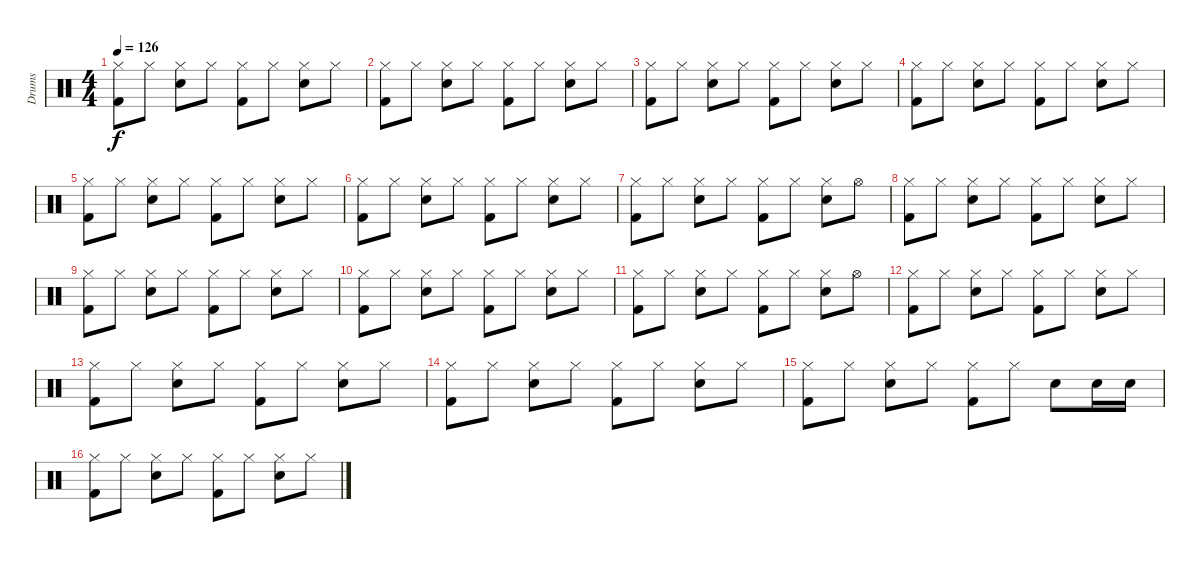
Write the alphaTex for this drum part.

\track ("Drums" "Drums") {instrument percussion}
\staff {score}
\articulation defaults
\ts (4 4)
\tempo 126
\clef neutral
\ks c
("Kick (hit) 2" "Hi-Hat (closed)").8{dy f} "Hi-Hat (closed)".8 ("Snare (hit) 2" "Hi-Hat (closed)").8 "Hi-Hat (closed)".8 ("Kick (hit) 2" "Hi-Hat (closed)").8 "Hi-Hat (closed)".8 ("Snare (hit) 2" "Hi-Hat (closed)").8 "Hi-Hat (closed)".8 |
("Kick (hit) 2" "Hi-Hat (closed)").8 "Hi-Hat (closed)".8 ("Snare (hit) 2" "Hi-Hat (closed)").8 "Hi-Hat (closed)".8 ("Kick (hit) 2" "Hi-Hat (closed)").8 "Hi-Hat (closed)".8 ("Snare (hit) 2" "Hi-Hat (closed)").8 "Hi-Hat (closed)".8 |
("Kick (hit) 2" "Hi-Hat (closed)").8 "Hi-Hat (closed)".8 ("Snare (hit) 2" "Hi-Hat (closed)").8 "Hi-Hat (closed)".8 ("Kick (hit) 2" "Hi-Hat (closed)").8 "Hi-Hat (closed)".8 ("Snare (hit) 2" "Hi-Hat (closed)").8 "Hi-Hat (closed)".8 |
("Kick (hit) 2" "Hi-Hat (closed)").8 "Hi-Hat (closed)".8 ("Snare (hit) 2" "Hi-Hat (closed)").8 "Hi-Hat (closed)".8 ("Kick (hit) 2" "Hi-Hat (closed)").8 "Hi-Hat (closed)".8 ("Snare (hit) 2" "Hi-Hat (closed)").8 "Hi-Hat (closed)".8 |
("Kick (hit) 2" "Hi-Hat (closed)").8 "Hi-Hat (closed)".8 ("Snare (hit) 2" "Hi-Hat (closed)").8 "Hi-Hat (closed)".8 ("Kick (hit) 2" "Hi-Hat (closed)").8 "Hi-Hat (closed)".8 ("Snare (hit) 2" "Hi-Hat (closed)").8 "Hi-Hat (closed)".8 |
("Kick (hit) 2" "Hi-Hat (closed)").8 "Hi-Hat (closed)".8 ("Snare (hit) 2" "Hi-Hat (closed)").8 "Hi-Hat (closed)".8 ("Kick (hit) 2" "Hi-Hat (closed)").8 "Hi-Hat (closed)".8 ("Snare (hit) 2" "Hi-Hat (closed)").8 "Hi-Hat (closed)".8 |
("Kick (hit) 2" "Hi-Hat (closed)").8 "Hi-Hat (closed)".8 ("Snare (hit) 2" "Hi-Hat (closed)").8 "Hi-Hat (closed)".8 ("Kick (hit) 2" "Hi-Hat (closed)").8 "Hi-Hat (closed)".8 ("Snare (hit) 2" "Hi-Hat (closed)").8 "Hi-Hat (open)".8 |
("Kick (hit) 2" "Hi-Hat (closed)").8 "Hi-Hat (closed)".8 ("Snare (hit) 2" "Hi-Hat (closed)").8 "Hi-Hat (closed)".8 ("Kick (hit) 2" "Hi-Hat (closed)").8 "Hi-Hat (closed)".8 ("Snare (hit) 2" "Hi-Hat (closed)").8 "Hi-Hat (closed)".8 |
("Kick (hit) 2" "Hi-Hat (closed)").8 "Hi-Hat (closed)".8 ("Snare (hit) 2" "Hi-Hat (closed)").8 "Hi-Hat (closed)".8 ("Kick (hit) 2" "Hi-Hat (closed)").8 "Hi-Hat (closed)".8 ("Snare (hit) 2" "Hi-Hat (closed)").8 "Hi-Hat (closed)".8 |
("Kick (hit) 2" "Hi-Hat (closed)").8 "Hi-Hat (closed)".8 ("Snare (hit) 2" "Hi-Hat (closed)").8 "Hi-Hat (closed)".8 ("Kick (hit) 2" "Hi-Hat (closed)").8 "Hi-Hat (closed)".8 ("Snare (hit) 2" "Hi-Hat (closed)").8 "Hi-Hat (closed)".8 |
("Kick (hit) 2" "Hi-Hat (closed)").8 "Hi-Hat (closed)".8 ("Snare (hit) 2" "Hi-Hat (closed)").8 "Hi-Hat (closed)".8 ("Kick (hit) 2" "Hi-Hat (closed)").8 "Hi-Hat (closed)".8 ("Snare (hit) 2" "Hi-Hat (closed)").8 "Hi-Hat (open)".8 |
("Kick (hit) 2" "Hi-Hat (closed)").8 "Hi-Hat (closed)".8 ("Snare (hit) 2" "Hi-Hat (closed)").8 "Hi-Hat (closed)".8 ("Kick (hit) 2" "Hi-Hat (closed)").8 "Hi-Hat (closed)".8 ("Snare (hit) 2" "Hi-Hat (closed)").8 "Hi-Hat (closed)".8 |
("Kick (hit) 2" "Hi-Hat (closed)").8 "Hi-Hat (closed)".8 ("Snare (hit) 2" "Hi-Hat (closed)").8 "Hi-Hat (closed)".8 ("Kick (hit) 2" "Hi-Hat (closed)").8 "Hi-Hat (closed)".8 ("Snare (hit) 2" "Hi-Hat (closed)").8 "Hi-Hat (closed)".8 |
("Kick (hit) 2" "Hi-Hat (closed)").8 "Hi-Hat (closed)".8 ("Snare (hit) 2" "Hi-Hat (closed)").8 "Hi-Hat (closed)".8 ("Kick (hit) 2" "Hi-Hat (closed)").8 "Hi-Hat (closed)".8 ("Snare (hit) 2" "Hi-Hat (closed)").8 "Hi-Hat (closed)".8 |
("Kick (hit) 2" "Hi-Hat (closed)").8 "Hi-Hat (closed)".8 ("Snare (hit) 2" "Hi-Hat (closed)").8 "Hi-Hat (closed)".8 ("Kick (hit) 2" "Hi-Hat (closed)").8 "Hi-Hat (closed)".8 "Snare (hit) 2".8 "Snare (hit) 2".16 "Snare (hit) 2".16 |
("Kick (hit) 2" "Hi-Hat (closed)").8 "Hi-Hat (closed)".8 ("Snare (hit) 2" "Hi-Hat (closed)").8 "Hi-Hat (closed)".8 ("Kick (hit) 2" "Hi-Hat (closed)").8 "Hi-Hat (closed)".8 ("Snare (hit) 2" "Hi-Hat (closed)").8 "Hi-Hat (closed)".8
